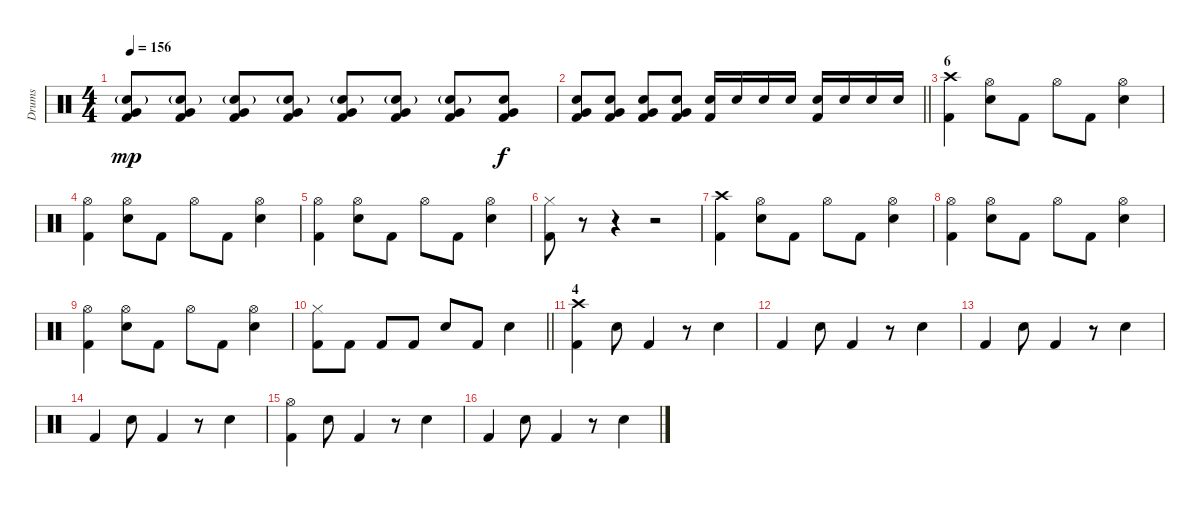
\track ("Drums" "Drums") {instrument percussion}
\staff {score}
\articulation defaults
\ts (4 4)
\tempo 156
\clef neutral
\ks c
("Snare (hit) 2"{g} "Very Low Tom (hit)" "Kick (hit) 2").8{dy mp} ("Snare (hit) 2"{g} "Very Low Tom (hit)" "Kick (hit) 2").8 ("Snare (hit) 2"{g} "Very Low Tom (hit)" "Kick (hit) 2").8 ("Snare (hit) 2"{g} "Very Low Tom (hit)" "Kick (hit) 2").8 ("Snare (hit) 2"{g} "Very Low Tom (hit)" "Kick (hit) 2").8 ("Snare (hit) 2"{g} "Very Low Tom (hit)" "Kick (hit) 2").8 ("Snare (hit) 2"{g} "Very Low Tom (hit)" "Kick (hit) 2").8 ("Snare (hit) 2" "Very Low Tom (hit)" "Kick (hit) 2").8{dy f} |
\barLineRight lightlight
("Snare (hit) 2" "Very Low Tom (hit)" "Kick (hit) 2").8 ("Snare (hit) 2" "Very Low Tom (hit)" "Kick (hit) 2").8 ("Snare (hit) 2" "Very Low Tom (hit)" "Kick (hit) 2").8 ("Snare (hit) 2" "Very Low Tom (hit)" "Kick (hit) 2").8 ("Snare (hit) 2" "Kick (hit) 2").16 "Snare (hit) 2".16 "Snare (hit) 2".16 "Snare (hit) 2".16 ("Snare (hit) 2" "Kick (hit) 2").16 "Snare (hit) 2".16 "Snare (hit) 2".16 "Snare (hit) 2".16 |
\section ("" "6")
("Crash high (hit)" "Kick (hit) 2").4 ("Hi-Hat (open)" "Snare (hit) 2").8 "Kick (hit) 2".8 "Hi-Hat (open)".8 "Kick (hit) 2".8 ("Hi-Hat (open)" "Snare (hit) 2").4 |
("Hi-Hat (open)" "Kick (hit) 2").4 ("Hi-Hat (open)" "Snare (hit) 2").8 "Kick (hit) 2".8 "Hi-Hat (open)".8 "Kick (hit) 2".8 ("Hi-Hat (open)" "Snare (hit) 2").4 |
("Hi-Hat (open)" "Kick (hit) 2").4 ("Hi-Hat (open)" "Snare (hit) 2").8 "Kick (hit) 2".8 "Hi-Hat (open)".8 "Kick (hit) 2".8 ("Hi-Hat (open)" "Snare (hit) 2").4 |
("Hi-Hat (closed)" "Kick (hit) 2").8 r.8 r.4 r.2 |
("Crash high (hit)" "Kick (hit) 2").4 ("Hi-Hat (open)" "Snare (hit) 2").8 "Kick (hit) 2".8 "Hi-Hat (open)".8 "Kick (hit) 2".8 ("Hi-Hat (open)" "Snare (hit) 2").4 |
("Hi-Hat (open)" "Kick (hit) 2").4 ("Hi-Hat (open)" "Snare (hit) 2").8 "Kick (hit) 2".8 "Hi-Hat (open)".8 "Kick (hit) 2".8 ("Hi-Hat (open)" "Snare (hit) 2").4 |
("Hi-Hat (open)" "Kick (hit) 2").4 ("Hi-Hat (open)" "Snare (hit) 2").8 "Kick (hit) 2".8 "Hi-Hat (open)".8 "Kick (hit) 2".8 ("Hi-Hat (open)" "Snare (hit) 2").4 |
\barLineRight lightlight
("Hi-Hat (closed)" "Kick (hit) 2").8 "Kick (hit) 2".8 "Kick (hit) 2".8 "Kick (hit) 2".8 "Snare (hit) 2".8 "Kick (hit) 2".8 "Snare (hit) 2".4 |
\section ("" "4")
("Crash high (hit)" "Kick (hit) 2").4 "Snare (hit) 2".8 "Kick (hit) 2".4 r.8 "Snare (hit) 2".4 |
"Kick (hit) 2".4 "Snare (hit) 2".8 "Kick (hit) 2".4 r.8 "Snare (hit) 2".4 |
"Kick (hit) 2".4 "Snare (hit) 2".8 "Kick (hit) 2".4 r.8 "Snare (hit) 2".4 |
"Kick (hit) 2".4 "Snare (hit) 2".8 "Kick (hit) 2".4 r.8 "Snare (hit) 2".4 |
("Hi-Hat (open)" "Kick (hit) 2").4 "Snare (hit) 2".8 "Kick (hit) 2".4 r.8 "Snare (hit) 2".4 |
"Kick (hit) 2".4 "Snare (hit) 2".8 "Kick (hit) 2".4 r.8 "Snare (hit) 2".4
